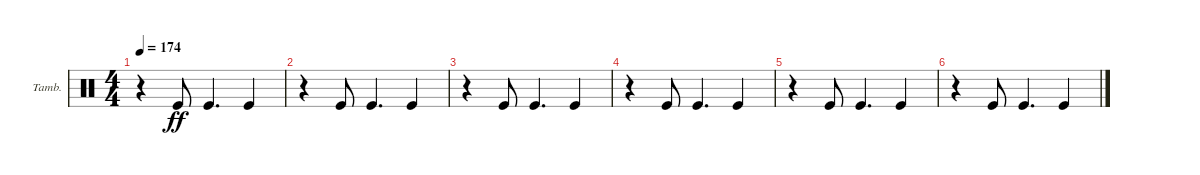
\defaultSystemsLayout 4
\bracketExtendMode groupsimilarinstruments
\firstSystemTrackNameOrientation horizontal
\otherSystemsTrackNameOrientation horizontal
\track ("Tambourine (EJ Barnes)" "Tamb.") {instrument percussion}
\staff {score}
\articulation defaults
\ts (4 4)
\tempo 174
\clef neutral
\scale
0.333333
\ks c
r.4{dy ff} "Kick (hit)".8 "Kick (hit)".4{d} "Kick (hit)".4 |
\scale
0.333333 r.4 "Kick (hit)".8 "Kick (hit)".4{d} "Kick (hit)".4 |
\scale
0.333333 r.4 "Kick (hit)".8 "Kick (hit)".4{d} "Kick (hit)".4 |
\scale
0.333333 r.4 "Kick (hit)".8 "Kick (hit)".4{d} "Kick (hit)".4 |
\scale
0.333333 r.4 "Kick (hit)".8 "Kick (hit)".4{d} "Kick (hit)".4 |
\scale
0.333333 r.4 "Kick (hit)".8 "Kick (hit)".4{d} "Kick (hit)".4 |
\scale
0.333333 |
\scale
0.333333 |
\scale
0.333333 |
\scale
0.333333 |
\scale
0.333333 |
\scale
0.333333 |
\scale
0.333333 |
\scale
0.333333 |
\scale
0.333333 |
\scale
0.333333
